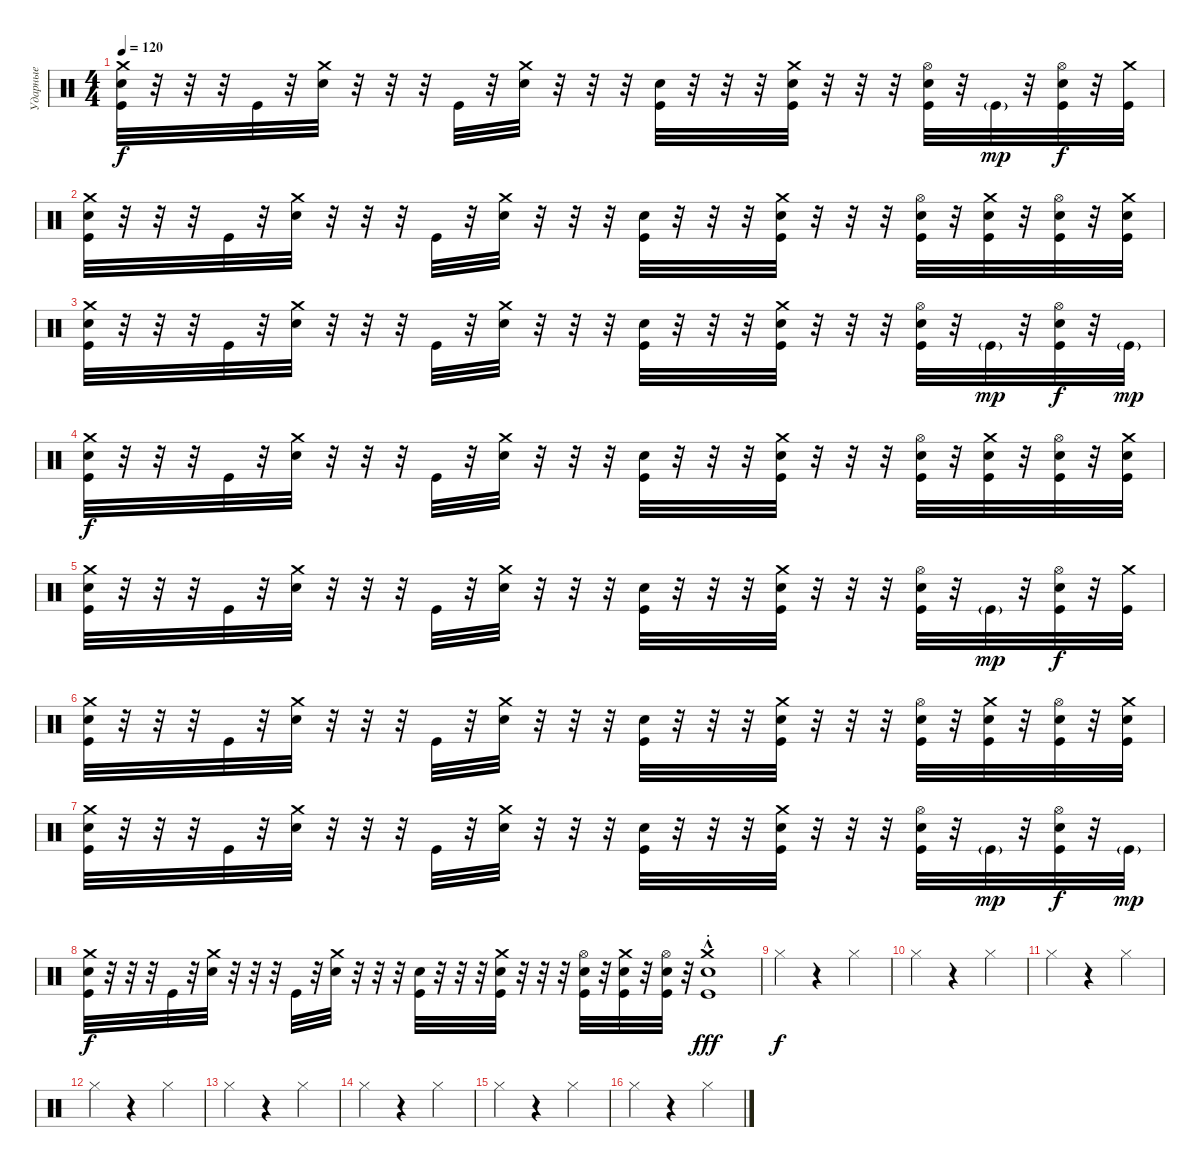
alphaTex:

\track ("Ударные" "Ударные") {instrument percussion}
\staff {score}
\articulation defaults
\ts (4 4)
\tempo 120
\clef neutral
\ks c
("Crash medium (hit)" "Electric Snare (hit)" "Kick (hit)").32{dy f} r.32 r.32 r.32 "Kick (hit)".32 r.32 ("Crash medium (hit)" "Electric Snare (hit)").32 r.32 r.32 r.32 "Kick (hit)".32 r.32 ("Crash medium (hit)" "Electric Snare (hit)").32 r.32 r.32 r.32 ("Electric Snare (hit)" "Kick (hit)").32 r.32 r.32 r.32 ("Crash medium (hit)" "Electric Snare (hit)" "Kick (hit)").32 r.32 r.32 r.32 ("Hi-Hat (open)" "Electric Snare (hit)" "Kick (hit)").32 r.32 "Kick (hit)"{g}.32{dy mp} r.32 ("Hi-Hat (open)" "Electric Snare (hit)" "Kick (hit)").32{dy f} r.32 ("Crash medium (hit)" "Kick (hit)").32 |
("Crash medium (hit)" "Electric Snare (hit)" "Kick (hit)").32 r.32 r.32 r.32 "Kick (hit)".32 r.32 ("Crash medium (hit)" "Electric Snare (hit)").32 r.32 r.32 r.32 "Kick (hit)".32 r.32 ("Crash medium (hit)" "Electric Snare (hit)").32 r.32 r.32 r.32 ("Electric Snare (hit)" "Kick (hit)").32 r.32 r.32 r.32 ("Crash medium (hit)" "Electric Snare (hit)" "Kick (hit)").32 r.32 r.32 r.32 ("Hi-Hat (open)" "Electric Snare (hit)" "Kick (hit)").32 r.32 ("Crash medium (hit)" "Electric Snare (hit)" "Kick (hit)").32 r.32 ("Hi-Hat (open)" "Electric Snare (hit)" "Kick (hit)").32 r.32 ("Crash medium (hit)" "Electric Snare (hit)" "Kick (hit)").32 |
("Crash medium (hit)" "Electric Snare (hit)" "Kick (hit)").32 r.32 r.32 r.32 "Kick (hit)".32 r.32 ("Crash medium (hit)" "Electric Snare (hit)").32 r.32 r.32 r.32 "Kick (hit)".32 r.32 ("Crash medium (hit)" "Electric Snare (hit)").32 r.32 r.32 r.32 ("Electric Snare (hit)" "Kick (hit)").32 r.32 r.32 r.32 ("Crash medium (hit)" "Electric Snare (hit)" "Kick (hit)").32 r.32 r.32 r.32 ("Hi-Hat (open)" "Electric Snare (hit)" "Kick (hit)").32 r.32 "Kick (hit)"{g}.32{dy mp} r.32 ("Hi-Hat (open)" "Electric Snare (hit)" "Kick (hit)").32{dy f} r.32 "Kick (hit)"{g}.32{dy mp} |
("Crash medium (hit)" "Electric Snare (hit)" "Kick (hit)").32{dy f} r.32 r.32 r.32 "Kick (hit)".32 r.32 ("Crash medium (hit)" "Electric Snare (hit)").32 r.32 r.32 r.32 "Kick (hit)".32 r.32 ("Crash medium (hit)" "Electric Snare (hit)").32 r.32 r.32 r.32 ("Electric Snare (hit)" "Kick (hit)").32 r.32 r.32 r.32 ("Crash medium (hit)" "Electric Snare (hit)" "Kick (hit)").32 r.32 r.32 r.32 ("Hi-Hat (open)" "Electric Snare (hit)" "Kick (hit)").32 r.32 ("Crash medium (hit)" "Electric Snare (hit)" "Kick (hit)").32 r.32 ("Hi-Hat (open)" "Electric Snare (hit)" "Kick (hit)").32 r.32 ("Crash medium (hit)" "Electric Snare (hit)" "Kick (hit)").32 |
("Crash medium (hit)" "Electric Snare (hit)" "Kick (hit)").32 r.32 r.32 r.32 "Kick (hit)".32 r.32 ("Crash medium (hit)" "Electric Snare (hit)").32 r.32 r.32 r.32 "Kick (hit)".32 r.32 ("Crash medium (hit)" "Electric Snare (hit)").32 r.32 r.32 r.32 ("Electric Snare (hit)" "Kick (hit)").32 r.32 r.32 r.32 ("Crash medium (hit)" "Electric Snare (hit)" "Kick (hit)").32 r.32 r.32 r.32 ("Hi-Hat (open)" "Electric Snare (hit)" "Kick (hit)").32 r.32 "Kick (hit)"{g}.32{dy mp} r.32 ("Hi-Hat (open)" "Electric Snare (hit)" "Kick (hit)").32{dy f} r.32 ("Crash medium (hit)" "Kick (hit)").32 |
("Crash medium (hit)" "Electric Snare (hit)" "Kick (hit)").32 r.32 r.32 r.32 "Kick (hit)".32 r.32 ("Crash medium (hit)" "Electric Snare (hit)").32 r.32 r.32 r.32 "Kick (hit)".32 r.32 ("Crash medium (hit)" "Electric Snare (hit)").32 r.32 r.32 r.32 ("Electric Snare (hit)" "Kick (hit)").32 r.32 r.32 r.32 ("Crash medium (hit)" "Electric Snare (hit)" "Kick (hit)").32 r.32 r.32 r.32 ("Hi-Hat (open)" "Electric Snare (hit)" "Kick (hit)").32 r.32 ("Crash medium (hit)" "Electric Snare (hit)" "Kick (hit)").32 r.32 ("Hi-Hat (open)" "Electric Snare (hit)" "Kick (hit)").32 r.32 ("Crash medium (hit)" "Electric Snare (hit)" "Kick (hit)").32 |
("Crash medium (hit)" "Electric Snare (hit)" "Kick (hit)").32 r.32 r.32 r.32 "Kick (hit)".32 r.32 ("Crash medium (hit)" "Electric Snare (hit)").32 r.32 r.32 r.32 "Kick (hit)".32 r.32 ("Crash medium (hit)" "Electric Snare (hit)").32 r.32 r.32 r.32 ("Electric Snare (hit)" "Kick (hit)").32 r.32 r.32 r.32 ("Crash medium (hit)" "Electric Snare (hit)" "Kick (hit)").32 r.32 r.32 r.32 ("Hi-Hat (open)" "Electric Snare (hit)" "Kick (hit)").32 r.32 "Kick (hit)"{g}.32{dy mp} r.32 ("Hi-Hat (open)" "Electric Snare (hit)" "Kick (hit)").32{dy f} r.32 "Kick (hit)"{g}.32{dy mp} |
("Crash medium (hit)" "Electric Snare (hit)" "Kick (hit)").32{dy f} r.32 r.32 r.32 "Kick (hit)".32 r.32 ("Crash medium (hit)" "Electric Snare (hit)").32 r.32 r.32 r.32 "Kick (hit)".32 r.32 ("Crash medium (hit)" "Electric Snare (hit)").32 r.32 r.32 r.32 ("Electric Snare (hit)" "Kick (hit)").32 r.32 r.32 r.32 ("Crash medium (hit)" "Electric Snare (hit)" "Kick (hit)").32 r.32 r.32 r.32 ("Hi-Hat (open)" "Electric Snare (hit)" "Kick (hit)").32 r.32 ("Crash medium (hit)" "Electric Snare (hit)" "Kick (hit)").32 r.32 ("Hi-Hat (open)" "Electric Snare (hit)" "Kick (hit)").32 r.32 ("Crash medium (hit)" "Electric Snare (hit)"{hac} "Kick (hit)"{hac st}).1{dy fff} |
"Hi-Hat (closed)".4{dy f} r.4 "Hi-Hat (closed)".4 |
"Hi-Hat (closed)".4 r.4 "Hi-Hat (closed)".4 |
"Hi-Hat (closed)".4 r.4 "Hi-Hat (closed)".4 |
"Hi-Hat (closed)".4 r.4 "Hi-Hat (closed)".4 |
"Hi-Hat (closed)".4 r.4 "Hi-Hat (closed)".4 |
"Hi-Hat (closed)".4 r.4 "Hi-Hat (closed)".4 |
"Hi-Hat (closed)".4 r.4 "Hi-Hat (closed)".4 |
"Hi-Hat (closed)".4 r.4 "Hi-Hat (closed)".4
